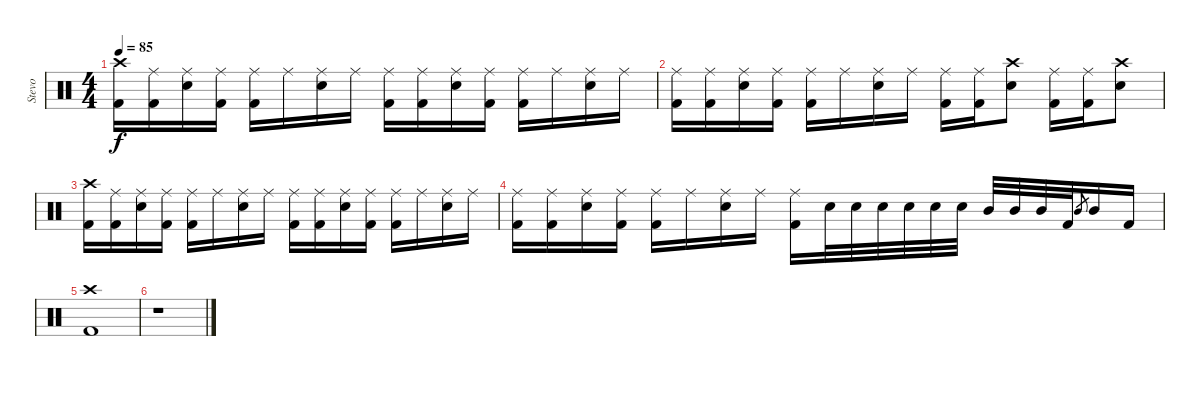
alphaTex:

\track ("Stevo" "Stevo") {instrument percussion}
\staff {score}
\articulation defaults
\ts (4 4)
\tempo 85
\clef neutral
\ks c
("Crash high (hit)" "Kick (hit) 2").16{dy f} ("Ride (middle)" "Kick (hit) 2").16 ("Ride (middle)" "Electric Snare (hit)").16 ("Ride (middle)" "Kick (hit) 2").16 ("Ride (middle)" "Kick (hit) 2").16 "Ride (middle)".16 ("Ride (middle)" "Electric Snare (hit)").16 "Ride (middle)".16 ("Ride (middle)" "Kick (hit) 2").16 ("Ride (middle)" "Kick (hit) 2").16 ("Ride (middle)" "Electric Snare (hit)").16 ("Ride (middle)" "Kick (hit) 2").16 ("Ride (middle)" "Kick (hit) 2").16 "Ride (middle)".16 ("Ride (middle)" "Electric Snare (hit)").16 "Ride (middle)".16 |
("Ride (middle)" "Kick (hit) 2").16 ("Ride (middle)" "Kick (hit) 2").16 ("Ride (middle)" "Electric Snare (hit)").16 ("Ride (middle)" "Kick (hit) 2").16 ("Ride (middle)" "Kick (hit) 2").16 "Ride (middle)".16 ("Ride (middle)" "Electric Snare (hit)").16 "Ride (middle)".16 ("Ride (middle)" "Kick (hit) 2").16 ("Ride (middle)" "Kick (hit) 2").16 ("Crash high (hit)" "Electric Snare (hit)").8 ("Ride (middle)" "Kick (hit) 2").16 ("Ride (middle)" "Kick (hit) 2").16 ("Crash high (hit)" "Electric Snare (hit)").8 |
("Crash high (hit)" "Kick (hit) 2").16 ("Ride (middle)" "Kick (hit) 2").16 ("Ride (middle)" "Electric Snare (hit)").16 ("Ride (middle)" "Kick (hit) 2").16 ("Ride (middle)" "Kick (hit) 2").16 "Ride (middle)".16 ("Ride (middle)" "Electric Snare (hit)").16 "Ride (middle)".16 ("Ride (middle)" "Kick (hit) 2").16 ("Ride (middle)" "Kick (hit) 2").16 ("Ride (middle)" "Electric Snare (hit)").16 ("Ride (middle)" "Kick (hit) 2").16 ("Ride (middle)" "Kick (hit) 2").16 "Ride (middle)".16 ("Ride (middle)" "Electric Snare (hit)").16 "Ride (middle)".16 |
("Ride (middle)" "Kick (hit) 2").16 ("Ride (middle)" "Kick (hit) 2").16 ("Ride (middle)" "Electric Snare (hit)").16 ("Ride (middle)" "Kick (hit) 2").16 ("Ride (middle)" "Kick (hit) 2").16 "Ride (middle)".16 ("Ride (middle)" "Electric Snare (hit)").16 "Ride (middle)".16 ("Ride (middle)" "Kick (hit) 2").16 "Electric Snare (hit)".32 "Electric Snare (hit)".32 "Electric Snare (hit)".32 "Electric Snare (hit)".32 "Electric Snare (hit)".32 "Electric Snare (hit)".32 "Mid Tom (hit)".32 "Mid Tom (hit)".32 "Mid Tom (hit)".32 "Kick (hit) 2".32 "Mid Tom (hit)".8{gr} "Mid Tom (hit)".16 "Kick (hit) 2".16 |
("Crash high (hit)" "Kick (hit) 2").1 |
r.1
